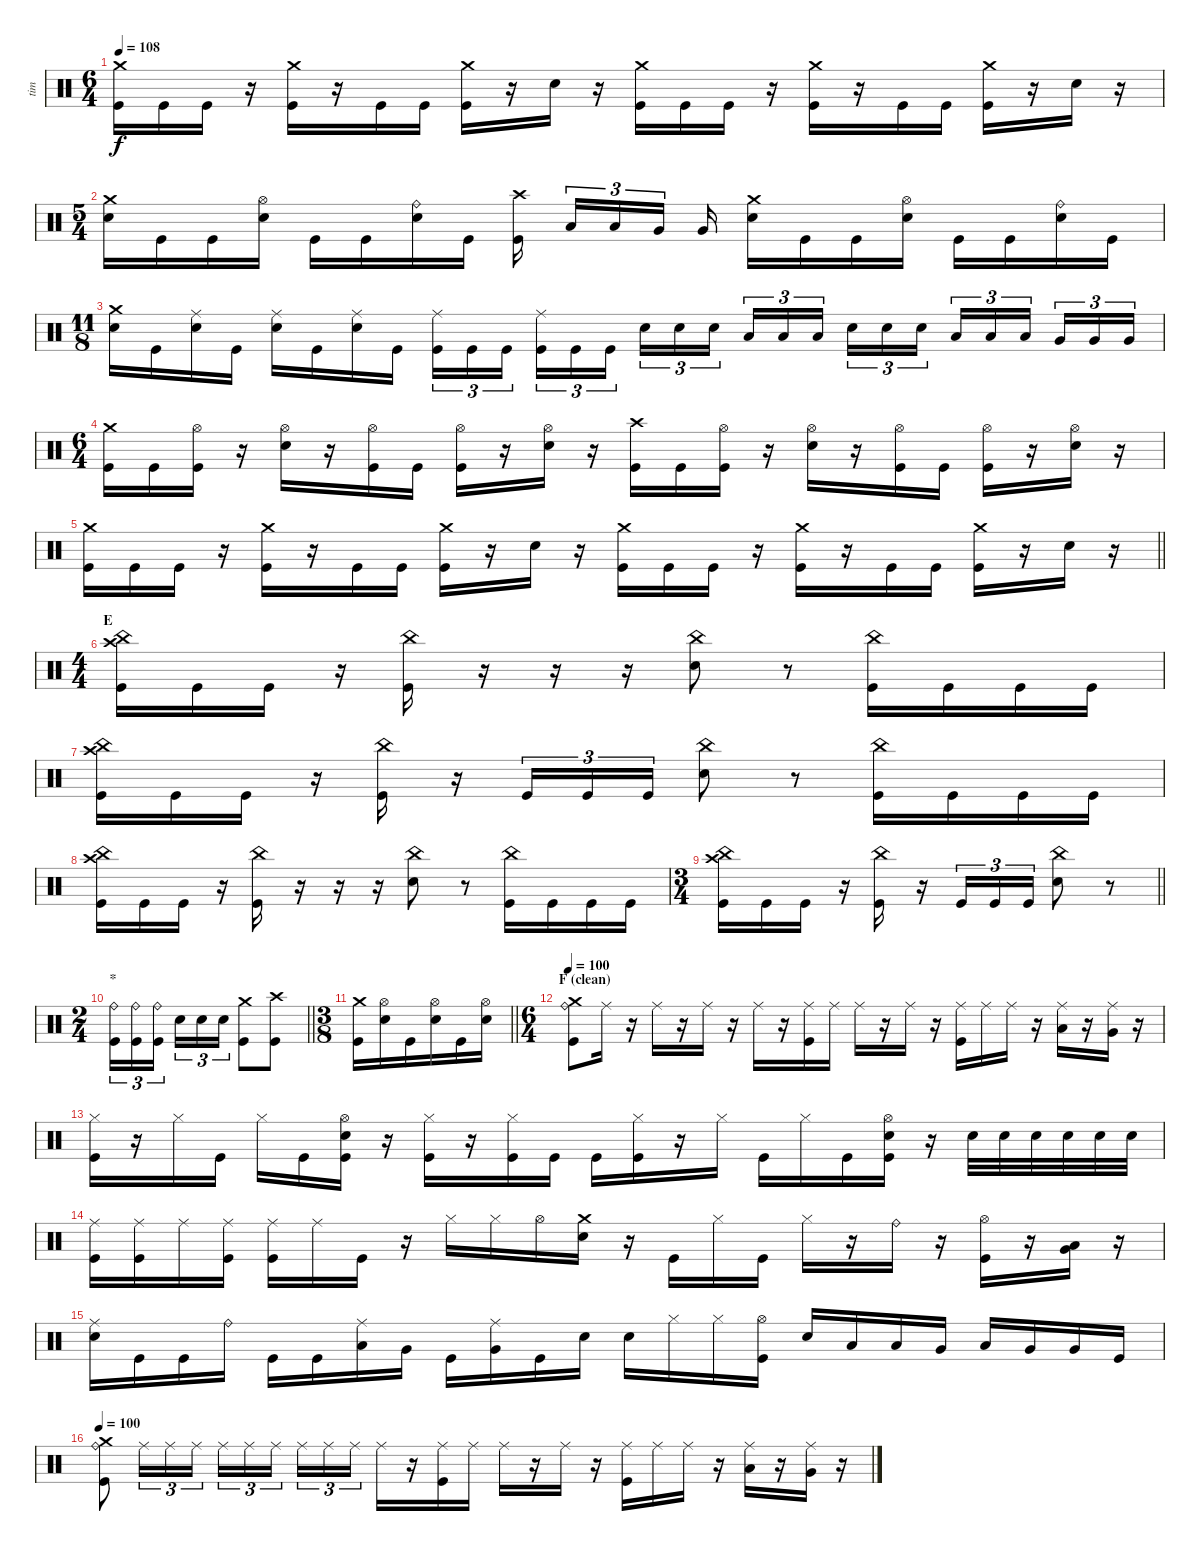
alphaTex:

\track ("tim" "tim") {instrument percussion}
\staff {score}
\articulation defaults
\ts (6 4)
\tempo 108
\clef neutral
\ks c
("Crash medium (hit)" "Kick (hit)").16{dy f} "Kick (hit)".16 "Kick (hit)".16 r.16 ("Crash medium (hit)" "Kick (hit)").16 r.16 "Kick (hit)".16 "Kick (hit)".16 ("Crash medium (hit)" "Kick (hit)").16 r.16 "Snare (hit) 2".16 r.16 ("Crash medium (hit)" "Kick (hit)").16 "Kick (hit)".16 "Kick (hit)".16 r.16 ("Crash medium (hit)" "Kick (hit)").16 r.16 "Kick (hit)".16 "Kick (hit)".16 ("Crash medium (hit)" "Kick (hit)").16 r.16 "Snare (hit) 2".16 r.16 |
\ts (5 4)
("Crash medium (hit)" "Snare (hit) 2").16 "Kick (hit)".16 "Kick (hit)".16 ("Hi-Hat (open)" "Snare (hit) 2").16 "Kick (hit)".16 "Kick (hit)".16 ("Ride (bell)" "Snare (hit) 2").16 "Kick (hit)".16 ("Crash high (hit)" "Kick (hit)").16{beam splitsecondary} "Low Tom (hit)".16{tu (3 2)} "Low Tom (hit)".16{tu (3 2)} "Very Low Tom (hit)".16{tu (3 2) beam splitsecondary} "Very Low Tom (hit)".16 ("Crash medium (hit)" "Snare (hit) 2").16 "Kick (hit)".16 "Kick (hit)".16 ("Hi-Hat (open)" "Snare (hit) 2").16 "Kick (hit)".16 "Kick (hit)".16 ("Ride (bell)" "Snare (hit) 2").16 "Kick (hit)".16 |
\ts (11 8)
("Crash medium (hit)" "Snare (hit) 2").16 "Kick (hit)".16 ("Ride (middle)" "Snare (hit) 2").16 "Kick (hit)".16 ("Ride (middle)" "Snare (hit) 2").16 "Kick (hit)".16 ("Ride (middle)" "Snare (hit) 2").16 "Kick (hit)".16 ("Ride (middle)" "Kick (hit)").16{tu (3 2)} "Kick (hit)".16{tu (3 2)} "Kick (hit)".16{tu (3 2)} ("Ride (middle)" "Kick (hit)").16{tu (3 2)} "Kick (hit)".16{tu (3 2)} "Kick (hit)".16{tu (3 2)} "Snare (hit) 2".16{tu (3 2)} "Snare (hit) 2".16{tu (3 2)} "Snare (hit) 2".16{tu (3 2)} "Low Tom (hit)".16{tu (3 2)} "Low Tom (hit)".16{tu (3 2)} "Low Tom (hit)".16{tu (3 2)} "Snare (hit) 2".16{tu (3 2)} "Snare (hit) 2".16{tu (3 2)} "Snare (hit) 2".16{tu (3 2)} "Low Tom (hit)".16{tu (3 2)} "Low Tom (hit)".16{tu (3 2)} "Low Tom (hit)".16{tu (3 2)} "Very Low Tom (hit)".16{tu (3 2)} "Very Low Tom (hit)".16{tu (3 2)} "Very Low Tom (hit)".16{tu (3 2)} |
\ts (6 4)
("Crash medium (hit)" "Kick (hit)").16 "Kick (hit)".16 ("Hi-Hat (open)" "Kick (hit)").16 r.16 ("Hi-Hat (open)" "Snare (hit) 2").16 r.16 ("Hi-Hat (open)" "Kick (hit)").16 "Kick (hit)".16 ("Hi-Hat (open)" "Kick (hit)").16 r.16 ("Hi-Hat (open)" "Snare (hit) 2").16 r.16 ("Crash high (hit)" "Kick (hit)").16 "Kick (hit)".16 ("Hi-Hat (open)" "Kick (hit)").16 r.16 ("Hi-Hat (open)" "Snare (hit) 2").16 r.16 ("Hi-Hat (open)" "Kick (hit)").16 "Kick (hit)".16 ("Hi-Hat (open)" "Kick (hit)").16 r.16 ("Hi-Hat (open)" "Snare (hit) 2").16 r.16 |
\barLineRight lightlight
("Crash medium (hit)" "Kick (hit)").16 "Kick (hit)".16 "Kick (hit)".16 r.16 ("Crash medium (hit)" "Kick (hit)").16 r.16 "Kick (hit)".16 "Kick (hit)".16 ("Crash medium (hit)" "Kick (hit)").16 r.16 "Snare (hit) 2".16 r.16 ("Crash medium (hit)" "Kick (hit)").16 "Kick (hit)".16 "Kick (hit)".16 r.16 ("Crash medium (hit)" "Kick (hit)").16 r.16 "Kick (hit)".16 "Kick (hit)".16 ("Crash medium (hit)" "Kick (hit)").16 r.16 "Snare (hit) 2".16 r.16 |
\ts (4 4)
\section ("" "E")
("Crash high (hit)" "China (hit)" "Kick (hit)").16 "Kick (hit)".16 "Kick (hit)".16 r.16 ("China (hit)" "Kick (hit)").16 r.16 r.16 r.16 ("China (hit)" "Snare (hit) 2").8 r.8 ("China (hit)" "Kick (hit)").16 "Kick (hit)".16 "Kick (hit)".16 "Kick (hit)".16 |
("Crash high (hit)" "China (hit)" "Kick (hit)").16 "Kick (hit)".16 "Kick (hit)".16 r.16 ("China (hit)" "Kick (hit)").16 r.16 "Kick (hit)".16{tu (3 2)} "Kick (hit)".16{tu (3 2)} "Kick (hit)".16{tu (3 2)} ("China (hit)" "Snare (hit) 2").8 r.8 ("China (hit)" "Kick (hit)").16 "Kick (hit)".16 "Kick (hit)".16 "Kick (hit)".16 |
("Crash high (hit)" "China (hit)" "Kick (hit)").16 "Kick (hit)".16 "Kick (hit)".16 r.16 ("China (hit)" "Kick (hit)").16 r.16 r.16 r.16 ("China (hit)" "Snare (hit) 2").8 r.8 ("China (hit)" "Kick (hit)").16 "Kick (hit)".16 "Kick (hit)".16 "Kick (hit)".16 |
\ts (3 4)
\barLineRight lightlight
("Crash high (hit)" "China (hit)" "Kick (hit)").16 "Kick (hit)".16 "Kick (hit)".16 r.16 ("China (hit)" "Kick (hit)").16 r.16 "Kick (hit)".16{tu (3 2)} "Kick (hit)".16{tu (3 2)} "Kick (hit)".16{tu (3 2)} ("China (hit)" "Snare (hit) 2").8 r.8 |
\ts (2 4)
\section ("" "*")
\barLineRight lightlight
("Ride (bell)" "Kick (hit)").16{tu (3 2)} ("Ride (bell)" "Kick (hit)").16{tu (3 2)} ("Ride (bell)" "Kick (hit)").16{tu (3 2) beam splitsecondary} "Snare (hit) 2".16{tu (3 2)} "Snare (hit) 2".16{tu (3 2)} "Snare (hit) 2".16{tu (3 2)} ("Crash medium (hit)" "Kick (hit)").8 ("Crash high (hit)" "Kick (hit)").8 |
\ts (3 8)
\barLineRight lightlight
("Crash medium (hit)" "Kick (hit)").16 ("Hi-Hat (open)" "Snare (hit) 2").16 "Kick (hit)".16 ("Hi-Hat (open)" "Snare (hit) 2").16 "Kick (hit)".16 ("Hi-Hat (open)" "Snare (hit) 2").16 |
\ts (6 4)
\section ("" "F (clean)")
\tempo 100
("Crash medium (hit)" "Ride (bell)" "Kick (hit)").8 "Ride (middle)".16 r.16 "Ride (middle)".16 r.16 "Ride (middle)".16 r.16 "Ride (middle)".16 r.16 ("Ride (middle)" "Kick (hit)").16 "Ride (middle)".16 "Ride (middle)".16 r.16 "Ride (middle)".16 r.16 ("Ride (middle)" "Kick (hit)").16 "Ride (middle)".16 "Ride (middle)".16 r.16 ("Ride (middle)" "Low Tom (hit)").16 r.16 ("Ride (middle)" "Very Low Tom (hit)").16 r.16 |
("Hi-Hat (closed)" "Kick (hit)").16 r.16 "Hi-Hat (closed)".16 "Kick (hit)".16 "Hi-Hat (closed)".16 "Kick (hit)".16 ("Hi-Hat (open)" "Snare (hit) 2" "Kick (hit)").16 r.16 ("Hi-Hat (closed)" "Kick (hit)").16 r.16 ("Hi-Hat (closed)" "Kick (hit)").16 "Kick (hit)".16 "Kick (hit)".16 ("Hi-Hat (closed)" "Kick (hit)").16 r.16 "Hi-Hat (closed)".16 "Kick (hit)".16 "Hi-Hat (closed)".16 "Kick (hit)".16 ("Hi-Hat (open)" "Snare (hit) 2" "Kick (hit)").16 r.16 "Snare (hit) 2".32 "Snare (hit) 2".32 "Snare (hit) 2".32 "Snare (hit) 2".32 "Snare (hit) 2".32 "Snare (hit) 2".32 |
("Ride (middle)" "Kick (hit)").16 ("Ride (middle)" "Kick (hit)").16 "Ride (middle)".16 ("Ride (middle)" "Kick (hit)").16 ("Ride (middle)" "Kick (hit)").16 "Ride (middle)".16 "Kick (hit)".16 r.16 "Hi-Hat (closed)".16 "Hi-Hat (closed)".16 "Hi-Hat (open)".16 ("Crash medium (hit)" "Snare (hit) 2").16 r.16 "Kick (hit)".16 "Hi-Hat (closed)".16 "Kick (hit)".16 "Hi-Hat (closed)".16 r.16 "Ride (bell)".16 r.16 ("Hi-Hat (open)" "Kick (hit)").16 r.16 ("Low Tom (hit)" "Very Low Tom (hit)").16 r.16 |
("Ride (middle)" "Snare (hit) 2").16 "Kick (hit)".16 "Kick (hit)".16 "Ride (bell)".16 "Kick (hit)".16 "Kick (hit)".16 ("Ride (middle)" "Low Tom (hit)").16 "Very Low Tom (hit)".16 "Kick (hit)".16 ("Ride (middle)" "Very Low Tom (hit)").16 "Kick (hit)".16 "Snare (hit) 2".16 "Snare (hit) 2".16 "Hi-Hat (closed)".16 "Hi-Hat (closed)".16 ("Hi-Hat (open)" "Kick (hit)").16 "Snare (hit) 2".16 "Low Tom (hit)".16 "Low Tom (hit)".16 "Very Low Tom (hit)".16 "Low Tom (hit)".16 "Very Low Tom (hit)".16 "Very Low Tom (hit)".16 "Kick (hit)".16 |
\tempo 100
("Crash medium (hit)" "Ride (bell)" "Kick (hit)").8 "Ride (middle)".16{tu (3 2)} "Ride (middle)".16{tu (3 2)} "Ride (middle)".16{tu (3 2) beam splitsecondary} "Ride (middle)".16{tu (3 2)} "Ride (middle)".16{tu (3 2)} "Ride (middle)".16{tu (3 2) beam splitsecondary} "Ride (middle)".16{tu (3 2)} "Ride (middle)".16{tu (3 2)} "Ride (middle)".16{tu (3 2) beam splitsecondary} "Ride (middle)".16 r.16 ("Ride (middle)" "Kick (hit)").16 "Ride (middle)".16 "Ride (middle)".16 r.16 "Ride (middle)".16 r.16 ("Ride (middle)" "Kick (hit)").16 "Ride (middle)".16 "Ride (middle)".16 r.16 ("Ride (middle)" "Low Tom (hit)").16 r.16 ("Ride (middle)" "Very Low Tom (hit)").16 r.16
